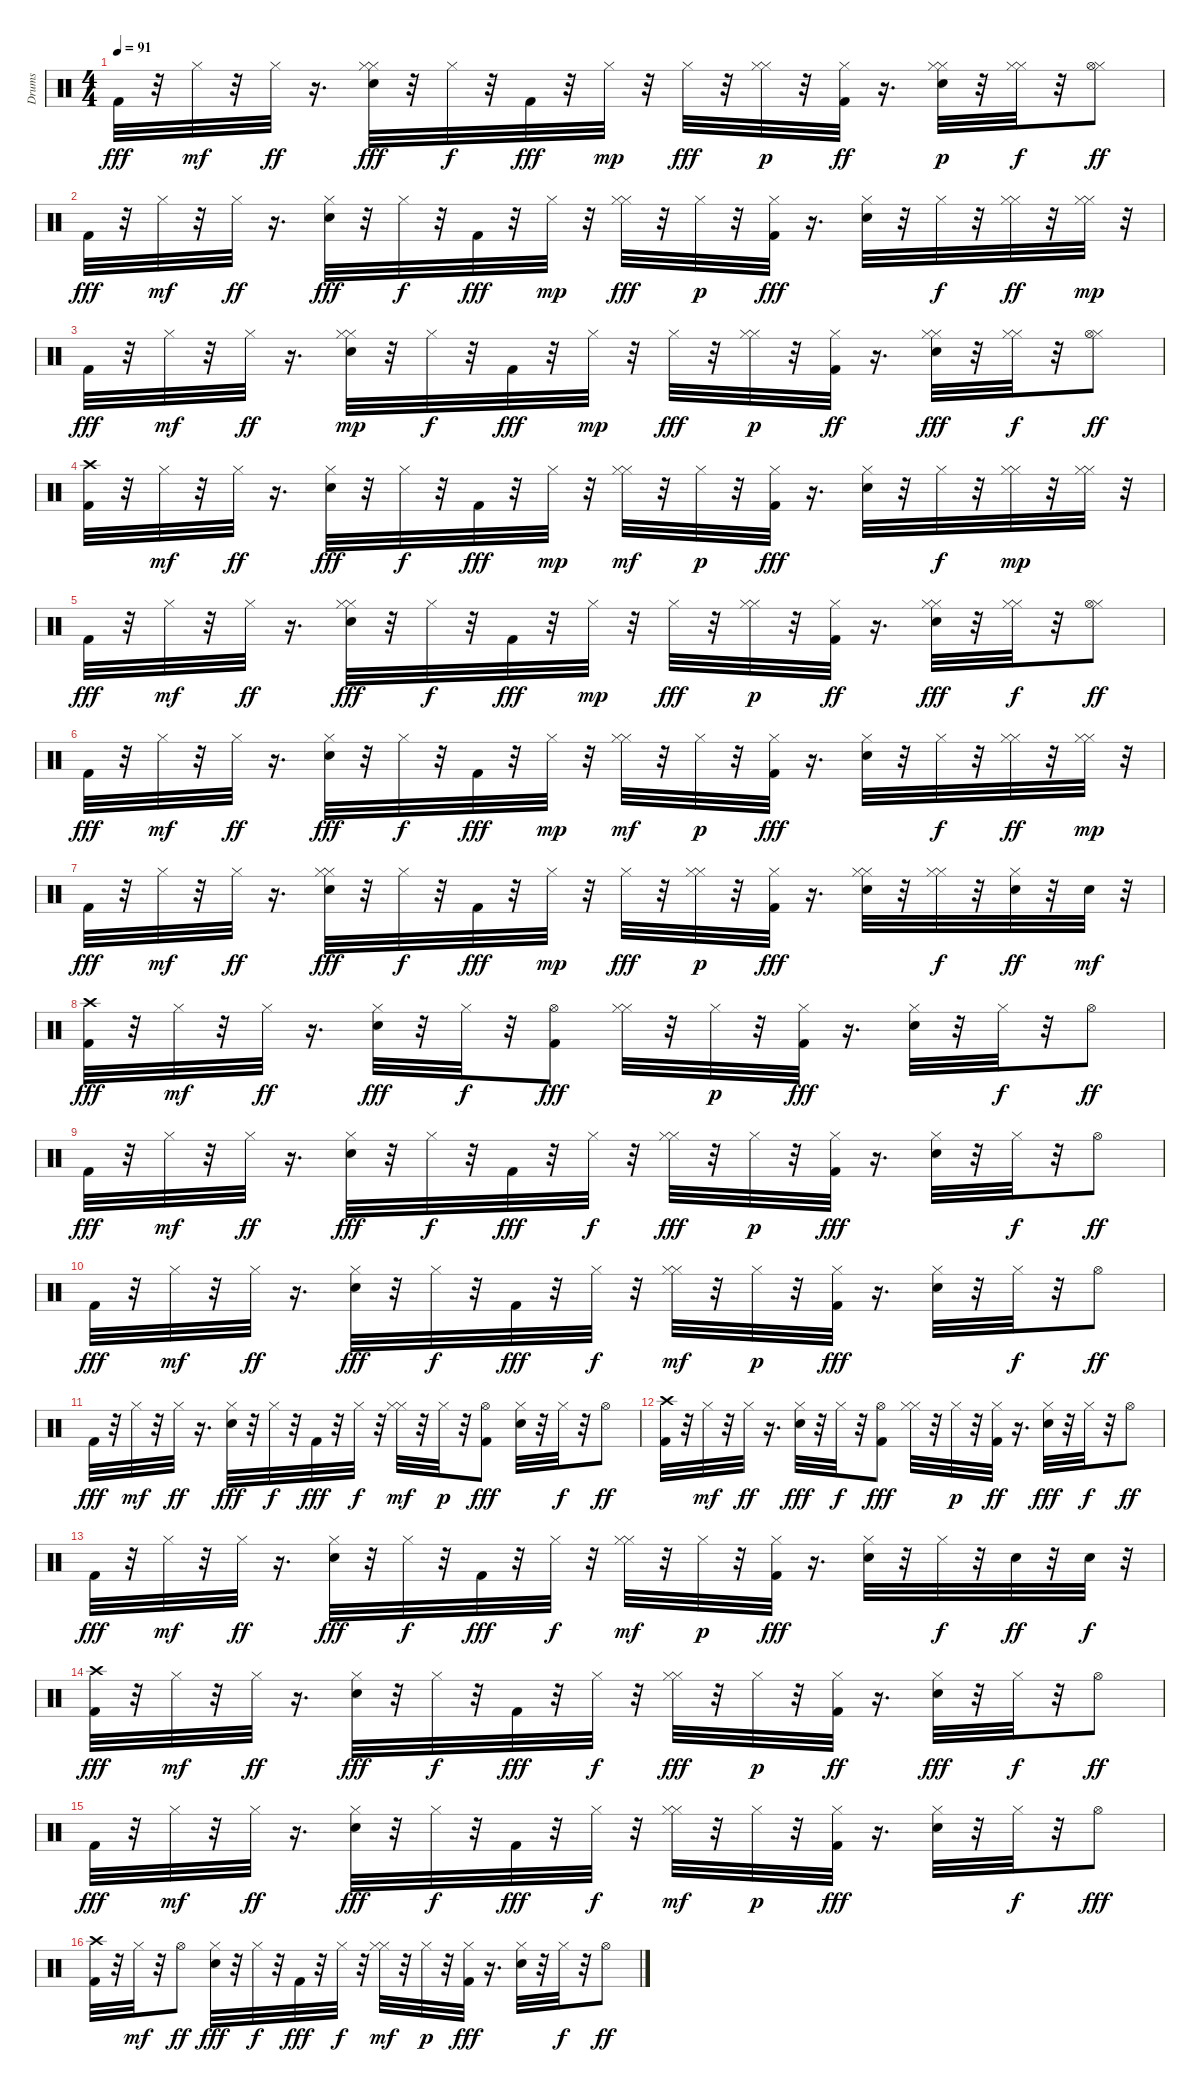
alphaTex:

\track ("Drums" "Drums") {instrument percussion}
\staff {score}
\articulation defaults
\ts (4 4)
\tempo 91
\clef neutral
\ks c "Kick (hit) 2".32{dy fff}
r.32 "Hi-Hat (closed)".32{dy mf} r.32 "Hi-Hat (closed)".32{dy ff} r.16{d} ("Snare (hit) 2" "Hi-Hat (closed)" "Hi-Hat (closed)").32{dy fff} r.32 "Hi-Hat (closed)".32{dy f} r.32 "Kick (hit) 2".32{dy fff} r.32 "Hi-Hat (closed)".32{dy mp} r.32 "Hi-Hat (closed)".32{dy fff} r.32 ("Hi-Hat (closed)" "Hi-Hat (closed)").32{dy p} r.32 ("Kick (hit) 2" "Hi-Hat (closed)").32{dy ff} r.16{d} ("Snare (hit) 2" "Hi-Hat (closed)" "Hi-Hat (closed)").32{dy p} r.32 ("Hi-Hat (closed)" "Hi-Hat (closed)").32{dy f} r.32 ("Hi-Hat (closed)" "Hi-Hat (open)").8{dy ff} |
"Kick (hit) 2".32{dy fff} r.32 "Hi-Hat (closed)".32{dy mf} r.32 "Hi-Hat (closed)".32{dy ff} r.16{d} ("Snare (hit) 2" "Hi-Hat (closed)").32{dy fff} r.32 "Hi-Hat (closed)".32{dy f} r.32 "Kick (hit) 2".32{dy fff} r.32 "Hi-Hat (closed)".32{dy mp} r.32 ("Hi-Hat (closed)" "Hi-Hat (closed)").32{dy fff} r.32 "Hi-Hat (closed)".32{dy p} r.32 ("Hi-Hat (closed)" "Kick (hit) 2").32{dy fff} r.16{d} ("Hi-Hat (closed)" "Snare (hit) 2").32 r.32 "Hi-Hat (closed)".32{dy f} r.32 ("Hi-Hat (closed)" "Hi-Hat (closed)").32{dy ff} r.32 ("Hi-Hat (closed)" "Hi-Hat (closed)").32{dy mp} r.32 |
"Kick (hit) 2".32{dy fff} r.32 "Hi-Hat (closed)".32{dy mf} r.32 "Hi-Hat (closed)".32{dy ff} r.16{d} ("Hi-Hat (closed)" "Snare (hit) 2" "Hi-Hat (closed)").32{dy mp} r.32 "Hi-Hat (closed)".32{dy f} r.32 "Kick (hit) 2".32{dy fff} r.32 "Hi-Hat (closed)".32{dy mp} r.32 "Hi-Hat (closed)".32{dy fff} r.32 ("Hi-Hat (closed)" "Hi-Hat (closed)").32{dy p} r.32 ("Kick (hit) 2" "Hi-Hat (closed)").32{dy ff} r.16{d} ("Hi-Hat (closed)" "Hi-Hat (closed)" "Snare (hit) 2").32{dy fff} r.32 ("Hi-Hat (closed)" "Hi-Hat (closed)").32{dy f} r.32 ("Hi-Hat (closed)" "Hi-Hat (open)").8{dy ff} |
("Kick (hit) 2" "Crash high (hit)").32 r.32 "Hi-Hat (closed)".32{dy mf} r.32 "Hi-Hat (closed)".32{dy ff} r.16{d} ("Snare (hit) 2" "Hi-Hat (closed)").32{dy fff} r.32 "Hi-Hat (closed)".32{dy f} r.32 "Kick (hit) 2".32{dy fff} r.32 "Hi-Hat (closed)".32{dy mp} r.32 ("Hi-Hat (closed)" "Hi-Hat (closed)").32{dy mf} r.32 "Hi-Hat (closed)".32{dy p} r.32 ("Hi-Hat (closed)" "Kick (hit) 2").32{dy fff} r.16{d} ("Snare (hit) 2" "Hi-Hat (closed)").32 r.32 "Hi-Hat (closed)".32{dy f} r.32 ("Hi-Hat (closed)" "Hi-Hat (closed)").32{dy mp} r.32 ("Hi-Hat (closed)" "Hi-Hat (closed)").32 r.32 |
"Kick (hit) 2".32{dy fff} r.32 "Hi-Hat (closed)".32{dy mf} r.32 "Hi-Hat (closed)".32{dy ff} r.16{d} ("Hi-Hat (closed)" "Snare (hit) 2" "Hi-Hat (closed)").32{dy fff} r.32 "Hi-Hat (closed)".32{dy f} r.32 "Kick (hit) 2".32{dy fff} r.32 "Hi-Hat (closed)".32{dy mp} r.32 "Hi-Hat (closed)".32{dy fff} r.32 ("Hi-Hat (closed)" "Hi-Hat (closed)").32{dy p} r.32 ("Kick (hit) 2" "Hi-Hat (closed)").32{dy ff} r.16{d} ("Snare (hit) 2" "Hi-Hat (closed)" "Hi-Hat (closed)").32{dy fff} r.32 ("Hi-Hat (closed)" "Hi-Hat (closed)").32{dy f} r.32 ("Hi-Hat (closed)" "Hi-Hat (open)").8{dy ff} |
"Kick (hit) 2".32{dy fff} r.32 "Hi-Hat (closed)".32{dy mf} r.32 "Hi-Hat (closed)".32{dy ff} r.16{d} ("Snare (hit) 2" "Hi-Hat (closed)").32{dy fff} r.32 "Hi-Hat (closed)".32{dy f} r.32 "Kick (hit) 2".32{dy fff} r.32 "Hi-Hat (closed)".32{dy mp} r.32 ("Hi-Hat (closed)" "Hi-Hat (closed)").32{dy mf} r.32 "Hi-Hat (closed)".32{dy p} r.32 ("Hi-Hat (closed)" "Kick (hit) 2").32{dy fff} r.16{d} ("Snare (hit) 2" "Hi-Hat (closed)").32 r.32 "Hi-Hat (closed)".32{dy f} r.32 ("Hi-Hat (closed)" "Hi-Hat (closed)").32{dy ff} r.32 ("Hi-Hat (closed)" "Hi-Hat (closed)").32{dy mp} r.32 |
"Kick (hit) 2".32{dy fff} r.32 "Hi-Hat (closed)".32{dy mf} r.32 "Hi-Hat (closed)".32{dy ff} r.16{d} ("Hi-Hat (closed)" "Hi-Hat (closed)" "Snare (hit) 2").32{dy fff} r.32 "Hi-Hat (closed)".32{dy f} r.32 "Kick (hit) 2".32{dy fff} r.32 "Hi-Hat (closed)".32{dy mp} r.32 "Hi-Hat (closed)".32{dy fff} r.32 ("Hi-Hat (closed)" "Hi-Hat (closed)").32{dy p} r.32 ("Hi-Hat (closed)" "Kick (hit) 2").32{dy fff} r.16{d} ("Hi-Hat (closed)" "Hi-Hat (closed)" "Snare (hit) 2").32 r.32 ("Hi-Hat (closed)" "Hi-Hat (closed)").32{dy f} r.32 ("Hi-Hat (closed)" "Snare (hit) 2").32{dy ff} r.32 "Snare (hit) 2".32{dy mf} r.32 |
("Crash high (hit)" "Kick (hit) 2").32{dy fff} r.32 "Hi-Hat (closed)".32{dy mf} r.32 "Hi-Hat (closed)".32{dy ff} r.16{d} ("Hi-Hat (closed)" "Snare (hit) 2").32{dy fff} r.32 "Hi-Hat (closed)".32{dy f} r.32 ("Kick (hit) 2" "Hi-Hat (open)").8{dy fff} ("Hi-Hat (closed)" "Hi-Hat (closed)").32 r.32 "Hi-Hat (closed)".32{dy p} r.32 ("Hi-Hat (closed)" "Kick (hit) 2").32{dy fff} r.16{d} ("Hi-Hat (closed)" "Snare (hit) 2").32 r.32 "Hi-Hat (closed)".32{dy f} r.32 "Hi-Hat (open)".8{dy ff} |
"Kick (hit) 2".32{dy fff} r.32 "Hi-Hat (closed)".32{dy mf} r.32 "Hi-Hat (closed)".32{dy ff} r.16{d} ("Hi-Hat (closed)" "Snare (hit) 2").32{dy fff} r.32 "Hi-Hat (closed)".32{dy f} r.32 "Kick (hit) 2".32{dy fff} r.32 "Hi-Hat (closed)".32{dy f} r.32 ("Hi-Hat (closed)" "Hi-Hat (closed)").32{dy fff} r.32 "Hi-Hat (closed)".32{dy p} r.32 ("Hi-Hat (closed)" "Kick (hit) 2").32{dy fff} r.16{d} ("Snare (hit) 2" "Hi-Hat (closed)").32 r.32 "Hi-Hat (closed)".32{dy f} r.32 "Hi-Hat (open)".8{dy ff} |
"Kick (hit) 2".32{dy fff} r.32 "Hi-Hat (closed)".32{dy mf} r.32 "Hi-Hat (closed)".32{dy ff} r.16{d} ("Snare (hit) 2" "Hi-Hat (closed)").32{dy fff} r.32 "Hi-Hat (closed)".32{dy f} r.32 "Kick (hit) 2".32{dy fff} r.32 "Hi-Hat (closed)".32{dy f} r.32 ("Hi-Hat (closed)" "Hi-Hat (closed)").32{dy mf} r.32 "Hi-Hat (closed)".32{dy p} r.32 ("Hi-Hat (closed)" "Kick (hit) 2").32{dy fff} r.16{d} ("Hi-Hat (closed)" "Snare (hit) 2").32 r.32 "Hi-Hat (closed)".32{dy f} r.32 "Hi-Hat (open)".8{dy ff} |
"Kick (hit) 2".32{dy fff} r.32 "Hi-Hat (closed)".32{dy mf} r.32 "Hi-Hat (closed)".32{dy ff} r.16{d} ("Hi-Hat (closed)" "Snare (hit) 2").32{dy fff} r.32 "Hi-Hat (closed)".32{dy f} r.32 "Kick (hit) 2".32{dy fff} r.32 "Hi-Hat (closed)".32{dy f} r.32 ("Hi-Hat (closed)" "Hi-Hat (closed)").32{dy mf} r.32 "Hi-Hat (closed)".32{dy p} r.32 ("Hi-Hat (open)" "Kick (hit) 2").8{dy fff} ("Snare (hit) 2" "Hi-Hat (closed)").32 r.32 "Hi-Hat (closed)".32{dy f} r.32 "Hi-Hat (open)".8{dy ff} |
("Kick (hit) 2" "Crash high (hit)").32 r.32 "Hi-Hat (closed)".32{dy mf} r.32 "Hi-Hat (closed)".32{dy ff} r.16{d} ("Hi-Hat (closed)" "Snare (hit) 2").32{dy fff} r.32 "Hi-Hat (closed)".32{dy f} r.32 ("Kick (hit) 2" "Hi-Hat (open)").8{dy fff} ("Hi-Hat (closed)" "Hi-Hat (closed)").32 r.32 "Hi-Hat (closed)".32{dy p} r.32 ("Kick (hit) 2" "Hi-Hat (closed)").32{dy ff} r.16{d} ("Hi-Hat (closed)" "Snare (hit) 2").32{dy fff} r.32 "Hi-Hat (closed)".32{dy f} r.32 "Hi-Hat (open)".8{dy ff} |
"Kick (hit) 2".32{dy fff} r.32 "Hi-Hat (closed)".32{dy mf} r.32 "Hi-Hat (closed)".32{dy ff} r.16{d} ("Snare (hit) 2" "Hi-Hat (closed)").32{dy fff} r.32 "Hi-Hat (closed)".32{dy f} r.32 "Kick (hit) 2".32{dy fff} r.32 "Hi-Hat (closed)".32{dy f} r.32 ("Hi-Hat (closed)" "Hi-Hat (closed)").32{dy mf} r.32 "Hi-Hat (closed)".32{dy p} r.32 ("Hi-Hat (closed)" "Kick (hit) 2").32{dy fff} r.16{d} ("Hi-Hat (closed)" "Snare (hit) 2").32 r.32 "Hi-Hat (closed)".32{dy f} r.32 "Snare (hit) 2".32{dy ff} r.32 "Snare (hit) 2".32{dy f} r.32 |
("Crash high (hit)" "Kick (hit) 2").32{dy fff} r.32 "Hi-Hat (closed)".32{dy mf} r.32 "Hi-Hat (closed)".32{dy ff} r.16{d} ("Snare (hit) 2" "Hi-Hat (closed)").32{dy fff} r.32 "Hi-Hat (closed)".32{dy f} r.32 "Kick (hit) 2".32{dy fff} r.32 "Hi-Hat (closed)".32{dy f} r.32 ("Hi-Hat (closed)" "Hi-Hat (closed)").32{dy fff} r.32 "Hi-Hat (closed)".32{dy p} r.32 ("Kick (hit) 2" "Hi-Hat (closed)").32{dy ff} r.16{d} ("Hi-Hat (closed)" "Snare (hit) 2").32{dy fff} r.32 "Hi-Hat (closed)".32{dy f} r.32 "Hi-Hat (open)".8{dy ff} |
"Kick (hit) 2".32{dy fff} r.32 "Hi-Hat (closed)".32{dy mf} r.32 "Hi-Hat (closed)".32{dy ff} r.16{d} ("Hi-Hat (closed)" "Snare (hit) 2").32{dy fff} r.32 "Hi-Hat (closed)".32{dy f} r.32 "Kick (hit) 2".32{dy fff} r.32 "Hi-Hat (closed)".32{dy f} r.32 ("Hi-Hat (closed)" "Hi-Hat (closed)").32{dy mf} r.32 "Hi-Hat (closed)".32{dy p} r.32 ("Hi-Hat (closed)" "Kick (hit) 2").32{dy fff} r.16{d} ("Hi-Hat (closed)" "Snare (hit) 2").32 r.32 "Hi-Hat (closed)".32{dy f} r.32 "Hi-Hat (open)".8{dy fff} |
("Crash high (hit)" "Kick (hit) 2").32 r.32 "Hi-Hat (closed)".32{dy mf} r.32 "Hi-Hat (open)".8{dy ff} ("Snare (hit) 2" "Hi-Hat (closed)").32{dy fff} r.32 "Hi-Hat (closed)".32{dy f} r.32 "Kick (hit) 2".32{dy fff} r.32 "Hi-Hat (closed)".32{dy f} r.32 ("Hi-Hat (closed)" "Hi-Hat (closed)").32{dy mf} r.32 "Hi-Hat (closed)".32{dy p} r.32 ("Hi-Hat (closed)" "Kick (hit) 2").32{dy fff} r.16{d} ("Snare (hit) 2" "Hi-Hat (closed)").32 r.32 "Hi-Hat (closed)".32{dy f} r.32 "Hi-Hat (open)".8{dy ff}
